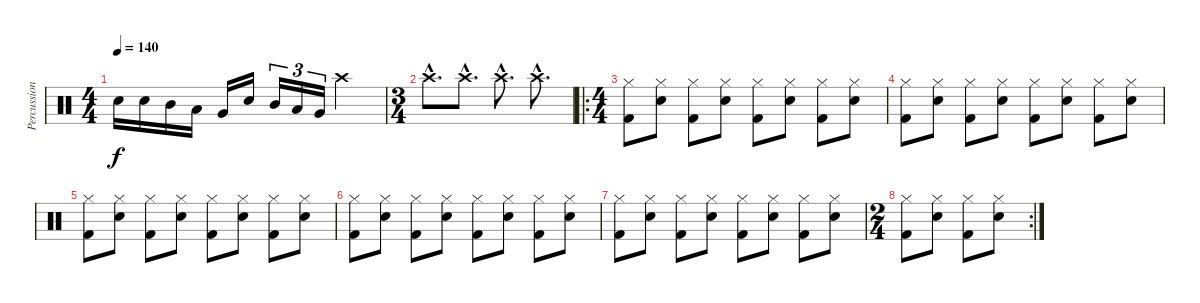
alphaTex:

\track ("Percussion" "Percussion") {instrument percussion}
\staff {score}
\articulation defaults
\ts (4 4)
\tempo 140
\clef neutral
\ks c "Snare (hit) 2".16{dy f} "Snare (hit) 2".16 "Mid Tom (hit)".16 "Low Tom (hit)".16 "Very Low Tom (hit)".16 "Snare (hit) 2".16 "Mid Tom (hit)".16{tu (3 2)} "Low Tom (hit)".16{tu (3 2)} "Very Low Tom (hit)".16{tu (3 2)} "Crash high (hit)".2
|
\ts (3 4)
"Crash high (hit)"{hac}.8{d} "Crash high (hit)"{hac}.8{d} "Crash high (hit)"{hac}.8{d} "Crash high (hit)"{hac}.8{d} |
\ro
\ts (4 4)
("Hi-Hat (closed)" "Kick (hit) 2").8 ("Hi-Hat (closed)" "Snare (hit) 2").8 ("Hi-Hat (closed)" "Kick (hit) 2").8 ("Hi-Hat (closed)" "Snare (hit) 2").8 ("Hi-Hat (closed)" "Kick (hit) 2").8 ("Hi-Hat (closed)" "Snare (hit) 2").8 ("Hi-Hat (closed)" "Kick (hit) 2").8 ("Hi-Hat (closed)" "Snare (hit) 2").8 |
("Hi-Hat (closed)" "Kick (hit) 2").8 ("Hi-Hat (closed)" "Snare (hit) 2").8 ("Hi-Hat (closed)" "Kick (hit) 2").8 ("Hi-Hat (closed)" "Snare (hit) 2").8 ("Hi-Hat (closed)" "Kick (hit) 2").8 ("Hi-Hat (closed)" "Snare (hit) 2").8 ("Hi-Hat (closed)" "Kick (hit) 2").8 ("Hi-Hat (closed)" "Snare (hit) 2").8 |
("Hi-Hat (closed)" "Kick (hit) 2").8 ("Hi-Hat (closed)" "Snare (hit) 2").8 ("Hi-Hat (closed)" "Kick (hit) 2").8 ("Hi-Hat (closed)" "Snare (hit) 2").8 ("Hi-Hat (closed)" "Kick (hit) 2").8 ("Hi-Hat (closed)" "Snare (hit) 2").8 ("Hi-Hat (closed)" "Kick (hit) 2").8 ("Hi-Hat (closed)" "Snare (hit) 2").8 |
("Hi-Hat (closed)" "Kick (hit) 2").8 ("Hi-Hat (closed)" "Snare (hit) 2").8 ("Hi-Hat (closed)" "Kick (hit) 2").8 ("Hi-Hat (closed)" "Snare (hit) 2").8 ("Hi-Hat (closed)" "Kick (hit) 2").8 ("Hi-Hat (closed)" "Snare (hit) 2").8 ("Hi-Hat (closed)" "Kick (hit) 2").8 ("Hi-Hat (closed)" "Snare (hit) 2").8 |
("Hi-Hat (closed)" "Kick (hit) 2").8 ("Hi-Hat (closed)" "Snare (hit) 2").8 ("Hi-Hat (closed)" "Kick (hit) 2").8 ("Hi-Hat (closed)" "Snare (hit) 2").8 ("Hi-Hat (closed)" "Kick (hit) 2").8 ("Hi-Hat (closed)" "Snare (hit) 2").8 ("Hi-Hat (closed)" "Kick (hit) 2").8 ("Hi-Hat (closed)" "Snare (hit) 2").8 |
\rc 2
\ts (2 4)
("Hi-Hat (closed)" "Kick (hit) 2").8 ("Hi-Hat (closed)" "Snare (hit) 2").8 ("Hi-Hat (closed)" "Kick (hit) 2").8 ("Hi-Hat (closed)" "Snare (hit) 2").8
